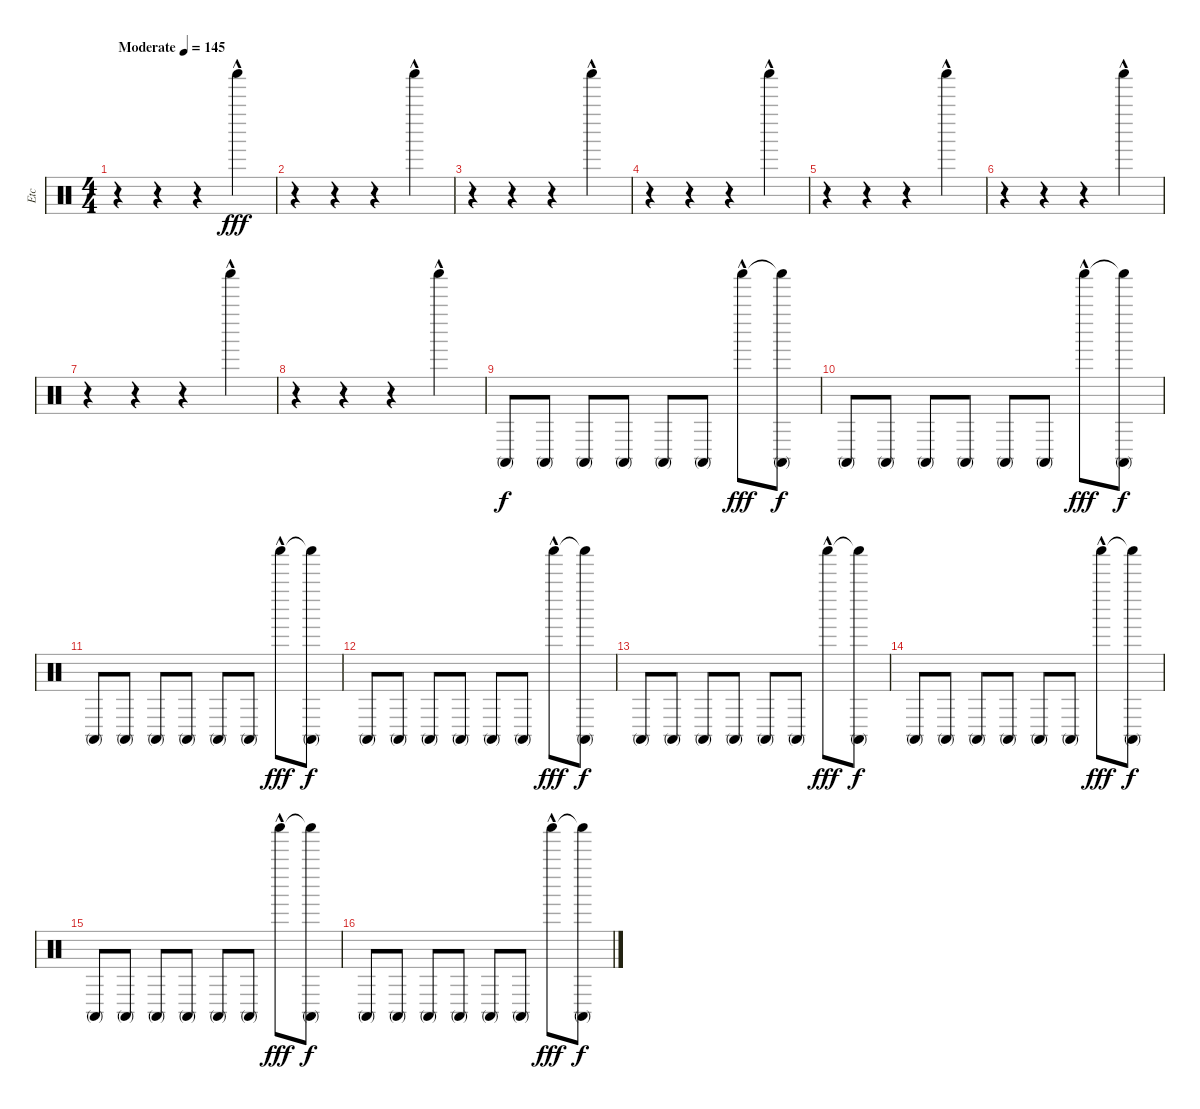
\track ("Etc" "Etc") {instrument percussion}
\staff {score}
\articulation defaults
\ts (4 4)
\tempo (145 "Moderate")
\clef neutral
\ks c
r.4{dy fff} r.4 r.4 "Shaker (hit)"{hac}.4 |
r.4 r.4 r.4 "Shaker (hit)"{hac}.4 |
r.4 r.4 r.4 "Shaker (hit)"{hac}.4 |
r.4 r.4 r.4 "Shaker (hit)"{hac}.4 |
r.4 r.4 r.4 "Shaker (hit)"{hac}.4 |
r.4 r.4 r.4 "Shaker (hit)"{hac}.4 |
r.4 r.4 r.4 "Shaker (hit)"{hac}.4 |
r.4 r.4 r.4 "Shaker (hit)"{hac}.4 |
"Conga high (mute)".8{dy f} "Conga high (mute)".8 "Conga high (mute)".8 "Conga high (mute)".8 "Conga high (mute)".8 "Conga high (mute)".8 "Shaker (hit)"{hac}.8{dy fff} ("Shaker (hit)"{t} "Conga high (mute)").8{dy f} |
"Conga high (mute)".8 "Conga high (mute)".8 "Conga high (mute)".8 "Conga high (mute)".8 "Conga high (mute)".8 "Conga high (mute)".8 "Shaker (hit)"{hac}.8{dy fff} ("Shaker (hit)"{t} "Conga high (mute)").8{dy f} |
"Conga high (mute)".8 "Conga high (mute)".8 "Conga high (mute)".8 "Conga high (mute)".8 "Conga high (mute)".8 "Conga high (mute)".8 "Shaker (hit)"{hac}.8{dy fff} ("Shaker (hit)"{t} "Conga high (mute)").8{dy f} |
"Conga high (mute)".8 "Conga high (mute)".8 "Conga high (mute)".8 "Conga high (mute)".8 "Conga high (mute)".8 "Conga high (mute)".8 "Shaker (hit)"{hac}.8{dy fff} ("Shaker (hit)"{t} "Conga high (mute)").8{dy f} |
"Conga high (mute)".8 "Conga high (mute)".8 "Conga high (mute)".8 "Conga high (mute)".8 "Conga high (mute)".8 "Conga high (mute)".8 "Shaker (hit)"{hac}.8{dy fff} ("Shaker (hit)"{t} "Conga high (mute)").8{dy f} |
"Conga high (mute)".8 "Conga high (mute)".8 "Conga high (mute)".8 "Conga high (mute)".8 "Conga high (mute)".8 "Conga high (mute)".8 "Shaker (hit)"{hac}.8{dy fff} ("Shaker (hit)"{t} "Conga high (mute)").8{dy f} |
"Conga high (mute)".8 "Conga high (mute)".8 "Conga high (mute)".8 "Conga high (mute)".8 "Conga high (mute)".8 "Conga high (mute)".8 "Shaker (hit)"{hac}.8{dy fff} ("Shaker (hit)"{t} "Conga high (mute)").8{dy f} |
"Conga high (mute)".8 "Conga high (mute)".8 "Conga high (mute)".8 "Conga high (mute)".8 "Conga high (mute)".8 "Conga high (mute)".8 "Shaker (hit)"{hac}.8{dy fff} ("Shaker (hit)"{t} "Conga high (mute)").8{dy f}
